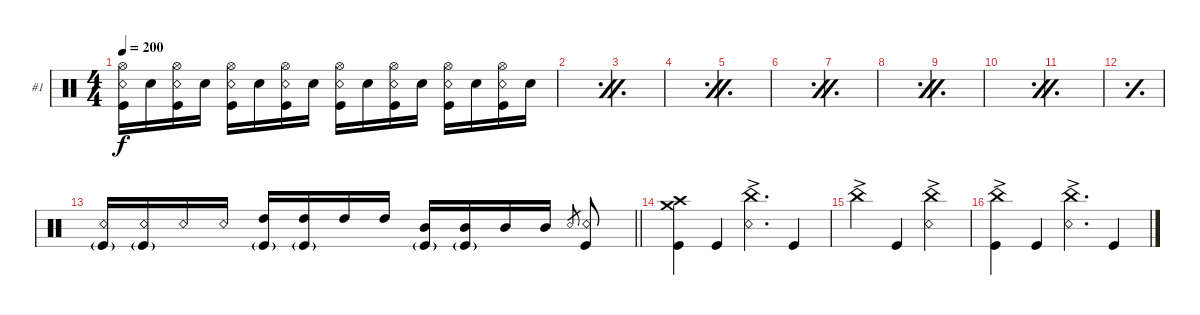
\bracketExtendMode groupsimilarinstruments
\firstSystemTrackNameOrientation horizontal
\otherSystemsTrackNameOrientation horizontal
\track ("Joey Jordison" "#1") {instrument percussion}
\staff {score}
\articulation defaults
\ts (4 4)
\tempo 200
\clef neutral
\ks c
("Snare (rim shot)" "Kick (hit)" "Hi-Hat (open)").16{dy f} "Snare (hit) 2".16 ("Snare (rim shot)" "Kick (hit)" "Hi-Hat (open)").16 "Snare (hit) 2".16 ("Snare (rim shot)" "Kick (hit)" "Hi-Hat (open)").16 "Snare (hit) 2".16 ("Snare (rim shot)" "Kick (hit)" "Hi-Hat (open)").16 "Snare (hit) 2".16 ("Snare (rim shot)" "Kick (hit)" "Hi-Hat (open)").16 "Snare (hit) 2".16 ("Snare (rim shot)" "Kick (hit)" "Hi-Hat (open)").16 "Snare (hit) 2".16 ("Snare (rim shot)" "Kick (hit)" "Hi-Hat (open)").16 "Snare (hit) 2".16 ("Snare (rim shot)" "Kick (hit)" "Hi-Hat (open)").16 "Snare (hit) 2".16 |
\simile firstofdouble
|
\simile secondofdouble
|
\simile firstofdouble
|
\simile secondofdouble
|
\simile firstofdouble
|
\simile secondofdouble
|
\simile firstofdouble
|
\simile secondofdouble
|
\simile firstofdouble
|
\simile secondofdouble
|
\simile simple
|
\simile none
\barLineRight lightlight
("Snare (rim shot)" "Kick (hit)"{g}).16 ("Snare (rim shot)" "Kick (hit)"{g}).16 "Snare (rim shot)".16 "Snare (rim shot)".16 ("High Tom (hit)" "Kick (hit)"{g}).16 ("High Tom (hit)" "Kick (hit)"{g}).16 "High Tom (hit)".16 "High Tom (hit)".16 ("Mid Tom (hit)" "Kick (hit)"{g}).16 ("Mid Tom (hit)" "Kick (hit)"{g}).16 "Mid Tom (hit)".16 "Mid Tom (hit)".16 "Snare (rim shot)".8{gr} ("Snare (rim shot)" "Kick (hit)").8 |
("Kick (hit)" "Crash medium (hit)" "Crash high (hit)").4 "Kick (hit)".4 ("Snare (rim shot)" "China (hit)"{ac}).4{d} "Kick (hit)".4 |
"China (hit)"{ac}.4 "Kick (hit)".4 ("Snare (rim shot)" "China (hit)"{ac}).4 |
("Kick (hit)" "China (hit)"{ac}).4 "Kick (hit)".4 ("Snare (rim shot)" "China (hit)"{ac}).4{d} "Kick (hit)".4
